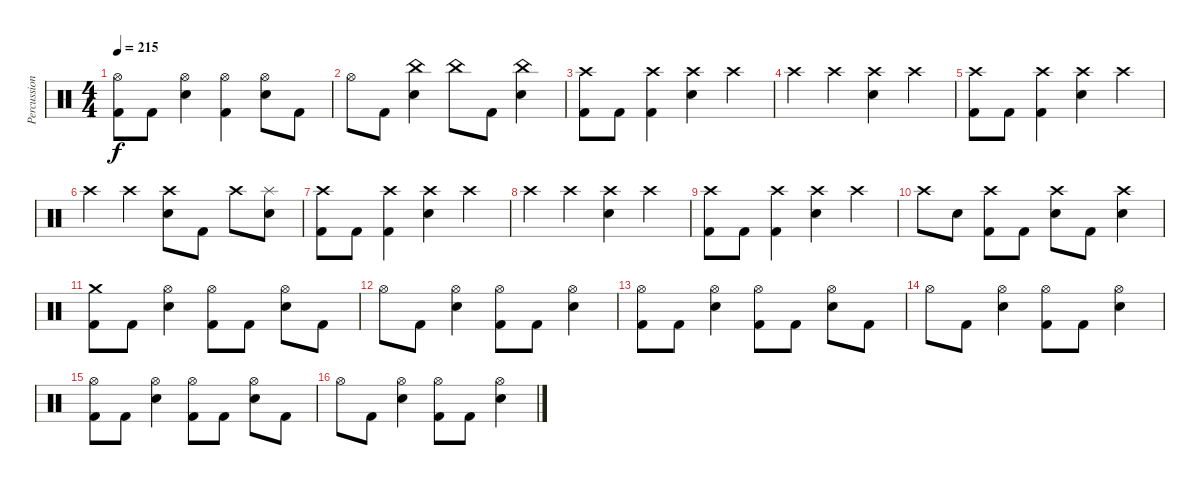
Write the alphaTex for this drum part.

\track ("Percussion" "Percussion") {instrument percussion}
\staff {score}
\articulation defaults
\ts (4 4)
\tempo 215
\clef neutral
\ks c
("Hi-Hat (open)" "Kick (hit) 2").8{dy f} "Kick (hit) 2".8 ("Hi-Hat (open)" "Electric Snare (hit)").4 ("Hi-Hat (open)" "Kick (hit) 2").4 ("Hi-Hat (open)" "Electric Snare (hit)").8 "Kick (hit) 2".8 |
"Hi-Hat (open)".8 "Kick (hit) 2".8 ("China (hit)" "Electric Snare (hit)").4 "China (hit)".8 "Kick (hit) 2".8 ("China (hit)" "Electric Snare (hit)").4 |
("Crash high (hit)" "Kick (hit) 2").8 "Kick (hit) 2".8 ("Crash high (hit)" "Kick (hit) 2").4 ("Crash high (hit)" "Electric Snare (hit)").4 "Crash high (hit)".4 |
"Crash high (hit)".4 "Crash high (hit)".4 ("Crash high (hit)" "Electric Snare (hit)").4 "Crash high (hit)".4 |
("Crash high (hit)" "Kick (hit) 2").8 "Kick (hit) 2".8 ("Crash high (hit)" "Kick (hit) 2").4 ("Crash high (hit)" "Electric Snare (hit)").4 "Crash high (hit)".4 |
"Crash high (hit)".4 "Crash high (hit)".4 ("Crash high (hit)" "Electric Snare (hit)").8 "Kick (hit) 2".8 "Crash high (hit)".8 ("Splash (hit)" "Electric Snare (hit)").8 |
("Crash high (hit)" "Kick (hit) 2").8 "Kick (hit) 2".8 ("Crash high (hit)" "Kick (hit) 2").4 ("Crash high (hit)" "Electric Snare (hit)").4 "Crash high (hit)".4 |
"Crash high (hit)".4 "Crash high (hit)".4 ("Crash high (hit)" "Electric Snare (hit)").4 "Crash high (hit)".4 |
("Crash high (hit)" "Kick (hit) 2").8 "Kick (hit) 2".8 ("Crash high (hit)" "Kick (hit) 2").4 ("Crash high (hit)" "Electric Snare (hit)").4 "Crash high (hit)".4 |
"Crash high (hit)".8 "Electric Snare (hit)".8 ("Crash high (hit)" "Kick (hit) 2").8 "Kick (hit) 2".8 ("Crash high (hit)" "Electric Snare (hit)").8 "Kick (hit) 2".8 ("Crash high (hit)" "Electric Snare (hit)").4 |
("Crash medium (hit)" "Kick (hit) 2").8 "Kick (hit) 2".8 ("Hi-Hat (open)" "Electric Snare (hit)").4 ("Hi-Hat (open)" "Kick (hit) 2").8 "Kick (hit) 2".8 ("Hi-Hat (open)" "Electric Snare (hit)").8 "Kick (hit) 2".8 |
"Hi-Hat (open)".8 "Kick (hit) 2".8 ("Hi-Hat (open)" "Electric Snare (hit)").4 ("Hi-Hat (open)" "Kick (hit) 2").8 "Kick (hit) 2".8 ("Hi-Hat (open)" "Electric Snare (hit)").4 |
("Hi-Hat (open)" "Kick (hit) 2").8 "Kick (hit) 2".8 ("Hi-Hat (open)" "Electric Snare (hit)").4 ("Hi-Hat (open)" "Kick (hit) 2").8 "Kick (hit) 2".8 ("Hi-Hat (open)" "Electric Snare (hit)").8 "Kick (hit) 2".8 |
"Hi-Hat (open)".8 "Kick (hit) 2".8 ("Hi-Hat (open)" "Electric Snare (hit)").4 ("Hi-Hat (open)" "Kick (hit) 2").8 "Kick (hit) 2".8 ("Hi-Hat (open)" "Electric Snare (hit)").4 |
("Hi-Hat (open)" "Kick (hit) 2").8 "Kick (hit) 2".8 ("Hi-Hat (open)" "Electric Snare (hit)").4 ("Hi-Hat (open)" "Kick (hit) 2").8 "Kick (hit) 2".8 ("Hi-Hat (open)" "Electric Snare (hit)").8 "Kick (hit) 2".8 |
"Hi-Hat (open)".8 "Kick (hit) 2".8 ("Hi-Hat (open)" "Electric Snare (hit)").4 ("Hi-Hat (open)" "Kick (hit) 2").8 "Kick (hit) 2".8 ("Hi-Hat (open)" "Electric Snare (hit)").4
